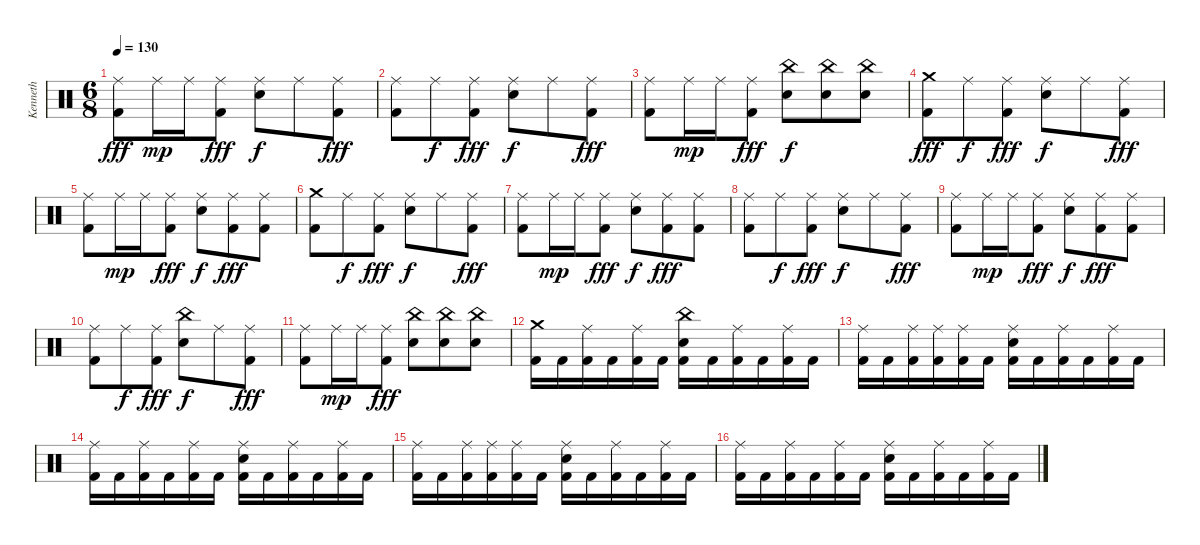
\track ("Kenneth" "Kenneth") {instrument percussion}
\staff {score}
\articulation defaults
\ts (6 8)
\tempo 130
\clef neutral
\ks c
("Ride (middle)" "Kick (hit) 2").8{dy fff} "Ride (middle)".16{dy mp} "Ride (middle)".16 ("Ride (middle)" "Kick (hit) 2").8{dy fff} ("Ride (middle)" "Electric Snare (hit)").8{dy f} "Ride (middle)".8 ("Ride (middle)" "Kick (hit) 2").8{dy fff} |
("Ride (middle)" "Kick (hit) 2").8 "Ride (middle)".8{dy f} ("Ride (middle)" "Kick (hit) 2").8{dy fff} ("Ride (middle)" "Electric Snare (hit)").8{dy f} "Ride (middle)".8 ("Ride (middle)" "Kick (hit) 2").8{dy fff} |
("Ride (middle)" "Kick (hit) 2").8 "Ride (middle)".16{dy mp} "Ride (middle)".16 ("Ride (middle)" "Kick (hit) 2").8{dy fff} ("China (hit)" "Electric Snare (hit)").8{dy f} ("China (hit)" "Electric Snare (hit)").8 ("China (hit)" "Electric Snare (hit)").8 |
("Crash medium (hit)" "Kick (hit) 2").8{dy fff} "Ride (middle)".8{dy f} ("Ride (middle)" "Kick (hit) 2").8{dy fff} ("Ride (middle)" "Electric Snare (hit)").8{dy f} "Ride (middle)".8 ("Ride (middle)" "Kick (hit) 2").8{dy fff} |
("Ride (middle)" "Kick (hit) 2").8 "Ride (middle)".16{dy mp} "Ride (middle)".16 ("Ride (middle)" "Kick (hit) 2").8{dy fff} ("Ride (middle)" "Electric Snare (hit)").8{dy f} ("Ride (middle)" "Kick (hit) 2").8{dy fff} ("Ride (middle)" "Kick (hit) 2").8 |
("Crash medium (hit)" "Kick (hit) 2").8 "Ride (middle)".8{dy f} ("Ride (middle)" "Kick (hit) 2").8{dy fff} ("Ride (middle)" "Electric Snare (hit)").8{dy f} "Ride (middle)".8 ("Ride (middle)" "Kick (hit) 2").8{dy fff} |
("Ride (middle)" "Kick (hit) 2").8 "Ride (middle)".16{dy mp} "Ride (middle)".16 ("Ride (middle)" "Kick (hit) 2").8{dy fff} ("Ride (middle)" "Electric Snare (hit)").8{dy f} ("Ride (middle)" "Kick (hit) 2").8{dy fff} ("Ride (middle)" "Kick (hit) 2").8 |
("Ride (middle)" "Kick (hit) 2").8 "Ride (middle)".8{dy f} ("Ride (middle)" "Kick (hit) 2").8{dy fff} ("Ride (middle)" "Electric Snare (hit)").8{dy f} "Ride (middle)".8 ("Ride (middle)" "Kick (hit) 2").8{dy fff} |
("Ride (middle)" "Kick (hit) 2").8 "Ride (middle)".16{dy mp} "Ride (middle)".16 ("Ride (middle)" "Kick (hit) 2").8{dy fff} ("Ride (middle)" "Electric Snare (hit)").8{dy f} ("Ride (middle)" "Kick (hit) 2").8{dy fff} ("Ride (middle)" "Kick (hit) 2").8 |
("Ride (middle)" "Kick (hit) 2").8 "Ride (middle)".8{dy f} ("Ride (middle)" "Kick (hit) 2").8{dy fff} ("China (hit)" "Electric Snare (hit)").8{dy f} "Ride (middle)".8 ("Ride (middle)" "Kick (hit) 2").8{dy fff} |
("Ride (middle)" "Kick (hit) 2").8 "Ride (middle)".16{dy mp} "Ride (middle)".16 ("Ride (middle)" "Kick (hit) 2").8{dy fff} ("China (hit)" "Electric Snare (hit)").8 ("China (hit)" "Electric Snare (hit)").8 ("China (hit)" "Electric Snare (hit)").8 |
("Crash medium (hit)" "Kick (hit) 2").16 "Kick (hit) 2".16 ("Ride (middle)" "Kick (hit) 2").16 "Kick (hit) 2".16 ("Ride (middle)" "Kick (hit) 2").16 "Kick (hit) 2".16 ("China (hit)" "Electric Snare (hit)" "Kick (hit) 2").16 "Kick (hit) 2".16 ("Ride (middle)" "Kick (hit) 2").16 "Kick (hit) 2".16 ("Ride (middle)" "Kick (hit) 2").16 "Kick (hit) 2".16 |
("Ride (middle)" "Kick (hit) 2").16 "Kick (hit) 2".16 ("Ride (middle)" "Kick (hit) 2").16 ("Ride (middle)" "Kick (hit) 2").16 ("Ride (middle)" "Kick (hit) 2").16 "Kick (hit) 2".16 ("Ride (middle)" "Electric Snare (hit)" "Kick (hit) 2").16 "Kick (hit) 2".16 ("Ride (middle)" "Kick (hit) 2").16 "Kick (hit) 2".16 ("Ride (middle)" "Kick (hit) 2").16 "Kick (hit) 2".16 |
("Ride (middle)" "Kick (hit) 2").16 "Kick (hit) 2".16 ("Ride (middle)" "Kick (hit) 2").16 "Kick (hit) 2".16 ("Ride (middle)" "Kick (hit) 2").16 "Kick (hit) 2".16 ("Ride (middle)" "Electric Snare (hit)" "Kick (hit) 2").16 "Kick (hit) 2".16 ("Ride (middle)" "Kick (hit) 2").16 "Kick (hit) 2".16 ("Ride (middle)" "Kick (hit) 2").16 "Kick (hit) 2".16 |
("Ride (middle)" "Kick (hit) 2").16 "Kick (hit) 2".16 ("Ride (middle)" "Kick (hit) 2").16 ("Ride (middle)" "Kick (hit) 2").16 ("Ride (middle)" "Kick (hit) 2").16 "Kick (hit) 2".16 ("Ride (middle)" "Electric Snare (hit)" "Kick (hit) 2").16 "Kick (hit) 2".16 ("Ride (middle)" "Kick (hit) 2").16 "Kick (hit) 2".16 ("Ride (middle)" "Kick (hit) 2").16 "Kick (hit) 2".16 |
("Ride (middle)" "Kick (hit) 2").16 "Kick (hit) 2".16 ("Ride (middle)" "Kick (hit) 2").16 "Kick (hit) 2".16 ("Ride (middle)" "Kick (hit) 2").16 "Kick (hit) 2".16 ("Ride (middle)" "Electric Snare (hit)" "Kick (hit) 2").16 "Kick (hit) 2".16 ("Ride (middle)" "Kick (hit) 2").16 "Kick (hit) 2".16 ("Ride (middle)" "Kick (hit) 2").16 "Kick (hit) 2".16
